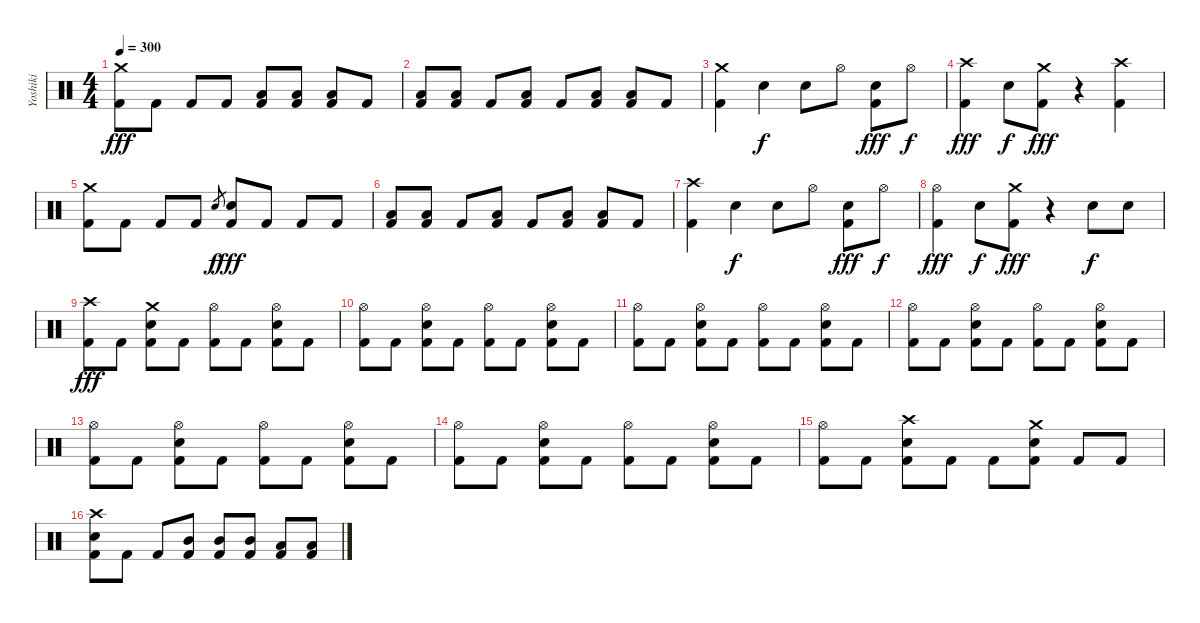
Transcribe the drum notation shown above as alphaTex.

\track ("Yoshiki" "Yoshiki") {instrument percussion}
\staff {score}
\articulation defaults
\ts (4 4)
\tempo 300
\clef neutral
\ks c
("Crash medium (hit)" "Kick (hit) 2").8{dy fff} "Kick (hit) 2".8 "Kick (hit) 2".8 "Kick (hit) 2".8 ("Low Floor Tom (hit)" "Kick (hit) 2").8 ("Low Floor Tom (hit)" "Kick (hit) 2").8 ("Low Floor Tom (hit)" "Kick (hit) 2").8 "Kick (hit) 2".8 |
("Low Floor Tom (hit)" "Kick (hit) 2").8 ("Low Floor Tom (hit)" "Kick (hit) 2").8 "Kick (hit) 2".8 ("Low Floor Tom (hit)" "Kick (hit) 2").8 "Kick (hit) 2".8 ("Low Floor Tom (hit)" "Kick (hit) 2").8 ("Low Floor Tom (hit)" "Kick (hit) 2").8 "Kick (hit) 2".8 |
("Crash medium (hit)" "Kick (hit) 2").4 "Snare (hit) 2".4{dy f} "Snare (hit) 2".8 "Hi-Hat (open)".8 ("Snare (hit) 2" "Kick (hit) 2").8{dy fff} "Hi-Hat (open)".8{dy f} |
("Crash high (hit)" "Kick (hit) 2").4{dy fff} "Snare (hit) 2".8{dy f} ("Crash medium (hit)" "Kick (hit) 2").8{dy fff} r.4 ("Crash high (hit)" "Kick (hit) 2").4 |
("Crash medium (hit)" "Kick (hit) 2").8 "Kick (hit) 2".8 "Kick (hit) 2".8 "Kick (hit) 2".8 "Snare (hit) 2".8{gr dy f} ("Snare (hit) 2" "Kick (hit) 2").8{dy fff} "Kick (hit) 2".8 "Kick (hit) 2".8 "Kick (hit) 2".8 |
("Low Floor Tom (hit)" "Kick (hit) 2").8 ("Low Floor Tom (hit)" "Kick (hit) 2").8 "Kick (hit) 2".8 ("Low Floor Tom (hit)" "Kick (hit) 2").8 "Kick (hit) 2".8 ("Low Floor Tom (hit)" "Kick (hit) 2").8 ("Low Floor Tom (hit)" "Kick (hit) 2").8 "Kick (hit) 2".8 |
("Crash high (hit)" "Kick (hit) 2").4 "Snare (hit) 2".4{dy f} "Snare (hit) 2".8 "Hi-Hat (open)".8 ("Snare (hit) 2" "Kick (hit) 2").8{dy fff} "Hi-Hat (open)".8{dy f} |
("Hi-Hat (open)" "Kick (hit) 2").4{dy fff} "Snare (hit) 2".8{dy f} ("Crash medium (hit)" "Kick (hit) 2").8{dy fff} r.4 "Snare (hit) 2".8{dy f} "Snare (hit) 2".8 |
("Crash high (hit)" "Kick (hit) 2").8{dy fff} "Kick (hit) 2".8 ("Crash medium (hit)" "Snare (hit) 2" "Kick (hit) 2").8 "Kick (hit) 2".8 ("Hi-Hat (open)" "Kick (hit) 2").8 "Kick (hit) 2".8 ("Hi-Hat (open)" "Snare (hit) 2" "Kick (hit) 2").8 "Kick (hit) 2".8 |
("Hi-Hat (open)" "Kick (hit) 2").8 "Kick (hit) 2".8 ("Hi-Hat (open)" "Snare (hit) 2" "Kick (hit) 2").8 "Kick (hit) 2".8 ("Hi-Hat (open)" "Kick (hit) 2").8 "Kick (hit) 2".8 ("Hi-Hat (open)" "Snare (hit) 2" "Kick (hit) 2").8 "Kick (hit) 2".8 |
("Hi-Hat (open)" "Kick (hit) 2").8 "Kick (hit) 2".8 ("Hi-Hat (open)" "Snare (hit) 2" "Kick (hit) 2").8 "Kick (hit) 2".8 ("Hi-Hat (open)" "Kick (hit) 2").8 "Kick (hit) 2".8 ("Hi-Hat (open)" "Snare (hit) 2" "Kick (hit) 2").8 "Kick (hit) 2".8 |
("Hi-Hat (open)" "Kick (hit) 2").8 "Kick (hit) 2".8 ("Hi-Hat (open)" "Snare (hit) 2" "Kick (hit) 2").8 "Kick (hit) 2".8 ("Hi-Hat (open)" "Kick (hit) 2").8 "Kick (hit) 2".8 ("Hi-Hat (open)" "Snare (hit) 2" "Kick (hit) 2").8 "Kick (hit) 2".8 |
("Hi-Hat (open)" "Kick (hit) 2").8 "Kick (hit) 2".8 ("Hi-Hat (open)" "Snare (hit) 2" "Kick (hit) 2").8 "Kick (hit) 2".8 ("Hi-Hat (open)" "Kick (hit) 2").8 "Kick (hit) 2".8 ("Hi-Hat (open)" "Snare (hit) 2" "Kick (hit) 2").8 "Kick (hit) 2".8 |
("Hi-Hat (open)" "Kick (hit) 2").8 "Kick (hit) 2".8 ("Hi-Hat (open)" "Snare (hit) 2" "Kick (hit) 2").8 "Kick (hit) 2".8 ("Hi-Hat (open)" "Kick (hit) 2").8 "Kick (hit) 2".8 ("Hi-Hat (open)" "Snare (hit) 2" "Kick (hit) 2").8 "Kick (hit) 2".8 |
("Hi-Hat (open)" "Kick (hit) 2").8 "Kick (hit) 2".8 ("Crash high (hit)" "Snare (hit) 2" "Kick (hit) 2").8 "Kick (hit) 2".8 "Kick (hit) 2".8 ("Crash medium (hit)" "Snare (hit) 2" "Kick (hit) 2").8 "Kick (hit) 2".8 "Kick (hit) 2".8 |
("Crash high (hit)" "Snare (hit) 2" "Kick (hit) 2").8 "Kick (hit) 2".8 "Kick (hit) 2".8 ("Mid Tom (hit)" "Kick (hit) 2").8 ("Mid Tom (hit)" "Kick (hit) 2").8 ("Mid Tom (hit)" "Kick (hit) 2").8 ("Low Tom (hit)" "Kick (hit) 2").8 ("Low Tom (hit)" "Kick (hit) 2").8
